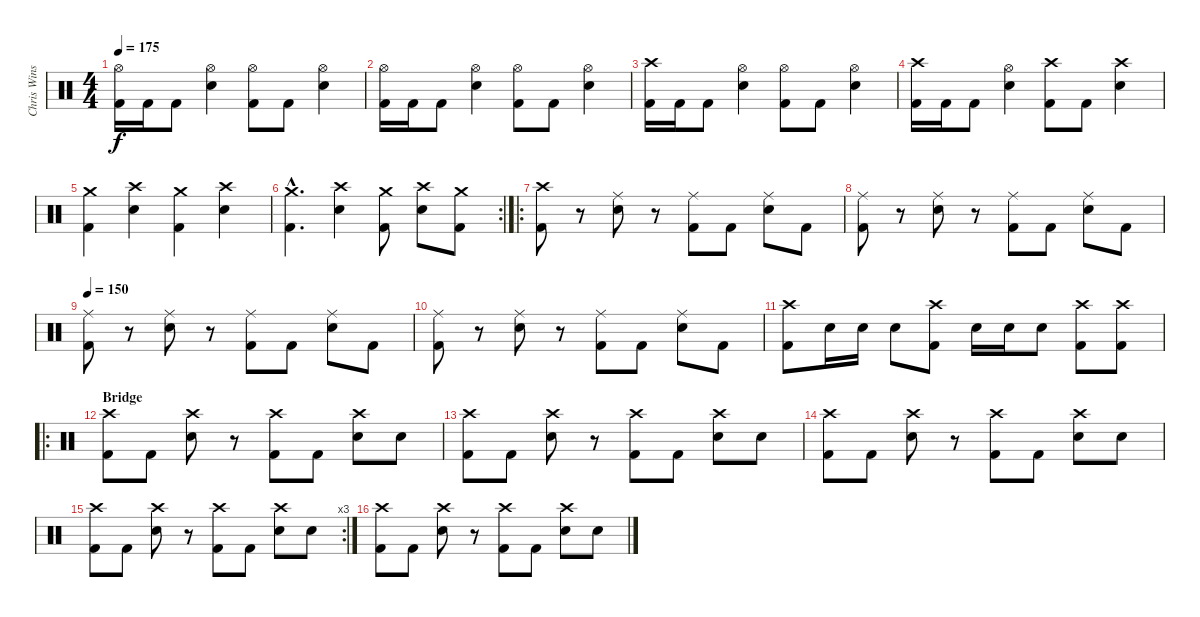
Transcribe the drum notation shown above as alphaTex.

\track ("Chris Winship (Drums)" "Chris Wins") {instrument percussion}
\staff {score}
\articulation defaults
\ts (4 4)
\tempo 175
\clef neutral
\ks c
("Hi-Hat (open)" "Kick (hit) 2").16{dy f} "Kick (hit) 2".16 "Kick (hit) 2".8 ("Hi-Hat (open)" "Snare (hit) 2").4 ("Hi-Hat (open)" "Kick (hit) 2").8 "Kick (hit) 2".8 ("Hi-Hat (open)" "Snare (hit) 2").4 |
("Hi-Hat (open)" "Kick (hit) 2").16 "Kick (hit) 2".16 "Kick (hit) 2".8 ("Hi-Hat (open)" "Snare (hit) 2").4 ("Hi-Hat (open)" "Kick (hit) 2").8 "Kick (hit) 2".8 ("Hi-Hat (open)" "Snare (hit) 2").4 |
("Crash high (hit)" "Kick (hit) 2").16 "Kick (hit) 2".16 "Kick (hit) 2".8 ("Hi-Hat (open)" "Snare (hit) 2").4 ("Hi-Hat (open)" "Kick (hit) 2").8 "Kick (hit) 2".8 ("Hi-Hat (open)" "Snare (hit) 2").4 |
("Crash high (hit)" "Kick (hit) 2").16 "Kick (hit) 2".16 "Kick (hit) 2".8 ("Hi-Hat (open)" "Snare (hit) 2").4 ("Crash high (hit)" "Kick (hit) 2").8 "Kick (hit) 2".8 ("Crash high (hit)" "Snare (hit) 2").4 |
("Crash medium (hit)" "Kick (hit) 2").4 ("Crash high (hit)" "Snare (hit) 2").4 ("Crash medium (hit)" "Kick (hit) 2").4 ("Crash high (hit)" "Snare (hit) 2").4 |
\rc 2
("Crash medium (hit)"{hac} "Kick (hit) 2"{hac}).4{d} ("Crash high (hit)" "Snare (hit) 2").4 ("Crash medium (hit)" "Kick (hit) 2").8 ("Crash high (hit)" "Snare (hit) 2").8 ("Crash medium (hit)" "Kick (hit) 2").8 |
\ro
("Crash high (hit)" "Kick (hit) 2").8 r.8 ("Ride (middle)" "Snare (hit) 2").8 r.8 ("Ride (middle)" "Kick (hit) 2").8 "Kick (hit) 2".8 ("Ride (middle)" "Snare (hit) 2").8 "Kick (hit) 2".8 |
("Ride (middle)" "Kick (hit) 2").8 r.8 ("Ride (middle)" "Snare (hit) 2").8 r.8 ("Ride (middle)" "Kick (hit) 2").8 "Kick (hit) 2".8 ("Ride (middle)" "Snare (hit) 2").8 "Kick (hit) 2".8 |
\tempo 150
("Ride (middle)" "Kick (hit) 2").8 r.8 ("Ride (middle)" "Snare (hit) 2").8 r.8 ("Ride (middle)" "Kick (hit) 2").8 "Kick (hit) 2".8 ("Ride (middle)" "Snare (hit) 2").8 "Kick (hit) 2".8 |
("Ride (middle)" "Kick (hit) 2").8 r.8 ("Ride (middle)" "Snare (hit) 2").8 r.8 ("Ride (middle)" "Kick (hit) 2").8 "Kick (hit) 2".8 ("Ride (middle)" "Snare (hit) 2").8 "Kick (hit) 2".8 |
("Crash high (hit)" "Kick (hit) 2").8 "Electric Snare (hit)".16 "Electric Snare (hit)".16 "Electric Snare (hit)".8 ("Crash high (hit)" "Kick (hit) 2").8 "Electric Snare (hit)".16 "Electric Snare (hit)".16 "Electric Snare (hit)".8 ("Crash high (hit)" "Kick (hit) 2").8 ("Crash high (hit)" "Kick (hit) 2").8 |
\ro
\section ("" "Bridge")
("Crash high (hit)" "Kick (hit) 2").8 "Kick (hit) 2".8 ("Crash high (hit)" "Snare (hit) 2").8 r.8 ("Crash high (hit)" "Kick (hit) 2").8 "Kick (hit) 2".8 ("Crash high (hit)" "Snare (hit) 2").8 "Snare (hit) 2".8 |
("Crash high (hit)" "Kick (hit) 2").8 "Kick (hit) 2".8 ("Crash high (hit)" "Snare (hit) 2").8 r.8 ("Crash high (hit)" "Kick (hit) 2").8 "Kick (hit) 2".8 ("Crash high (hit)" "Snare (hit) 2").8 "Snare (hit) 2".8 |
("Crash high (hit)" "Kick (hit) 2").8 "Kick (hit) 2".8 ("Crash high (hit)" "Snare (hit) 2").8 r.8 ("Crash high (hit)" "Kick (hit) 2").8 "Kick (hit) 2".8 ("Crash high (hit)" "Snare (hit) 2").8 "Snare (hit) 2".8 |
\rc 3
("Crash high (hit)" "Kick (hit) 2").8 "Kick (hit) 2".8 ("Crash high (hit)" "Snare (hit) 2").8 r.8 ("Crash high (hit)" "Kick (hit) 2").8 "Kick (hit) 2".8 ("Crash high (hit)" "Snare (hit) 2").8 "Snare (hit) 2".8 |
("Crash high (hit)" "Kick (hit) 2").8 "Kick (hit) 2".8 ("Crash high (hit)" "Snare (hit) 2").8 r.8 ("Crash high (hit)" "Kick (hit) 2").8 "Kick (hit) 2".8 ("Crash high (hit)" "Snare (hit) 2").8 "Snare (hit) 2".8
